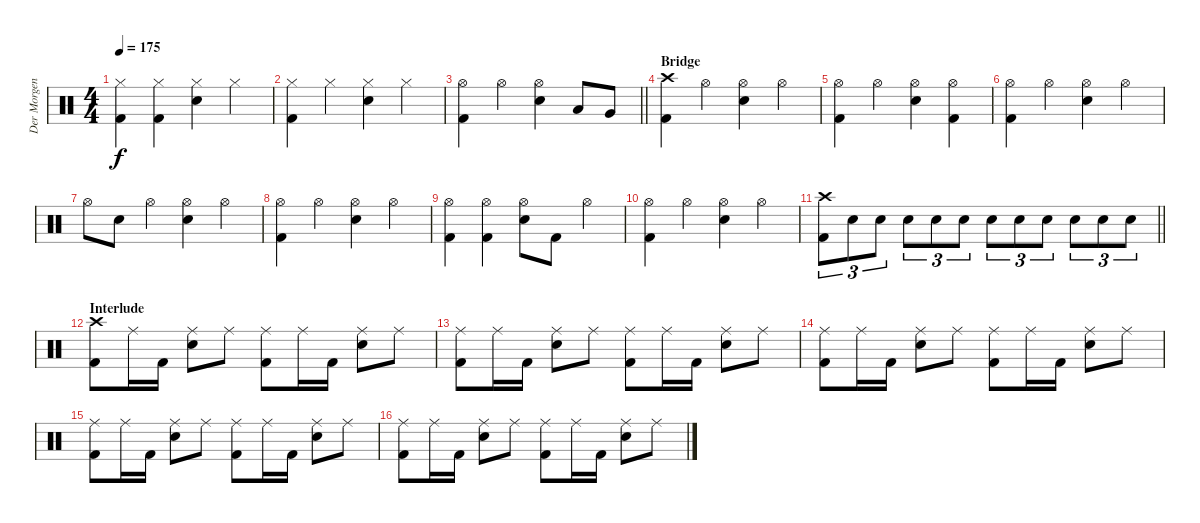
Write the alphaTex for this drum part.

\track ("Der Morgenstern" "Der Morgen") {instrument percussion}
\staff {score}
\articulation defaults
\ts (4 4)
\tempo 175
\clef neutral
\ks c
("Hi-Hat (closed)" "Kick (hit) 2").4{dy f} ("Hi-Hat (closed)" "Kick (hit) 2").4 ("Hi-Hat (closed)" "Electric Snare (hit)").4 "Hi-Hat (closed)".4 |
("Hi-Hat (closed)" "Kick (hit) 2").4 "Hi-Hat (closed)".4 ("Hi-Hat (closed)" "Electric Snare (hit)").4 "Hi-Hat (closed)".4 |
\barLineRight lightlight
("Hi-Hat (open)" "Kick (hit) 2").4 "Hi-Hat (open)".4 ("Hi-Hat (open)" "Electric Snare (hit)").4 "Low Tom (hit)".8 "Very Low Tom (hit)".8 |
\section ("" "Bridge")
("Crash high (hit)" "Kick (hit) 2").4 "Hi-Hat (open)".4 ("Hi-Hat (open)" "Electric Snare (hit)").4 "Hi-Hat (open)".4 |
("Hi-Hat (open)" "Kick (hit) 2").4 "Hi-Hat (open)".4 ("Hi-Hat (open)" "Electric Snare (hit)").4 ("Hi-Hat (open)" "Kick (hit) 2").4 |
("Hi-Hat (open)" "Kick (hit) 2").4 "Hi-Hat (open)".4 ("Hi-Hat (open)" "Electric Snare (hit)").4 "Hi-Hat (open)".4 |
"Hi-Hat (open)".8 "Electric Snare (hit)".8 "Hi-Hat (open)".4 ("Hi-Hat (open)" "Electric Snare (hit)").4 "Hi-Hat (open)".4 |
("Hi-Hat (open)" "Kick (hit) 2").4 "Hi-Hat (open)".4 ("Hi-Hat (open)" "Electric Snare (hit)").4 "Hi-Hat (open)".4 |
("Hi-Hat (open)" "Kick (hit) 2").4 ("Hi-Hat (open)" "Kick (hit) 2").4 ("Hi-Hat (open)" "Electric Snare (hit)").8 "Kick (hit) 2".8 "Hi-Hat (open)".4 |
("Hi-Hat (open)" "Kick (hit) 2").4 "Hi-Hat (open)".4 ("Hi-Hat (open)" "Electric Snare (hit)").4 "Hi-Hat (open)".4 |
\barLineRight lightlight
("Crash high (hit)" "Kick (hit) 2").8{tu (3 2)} "Electric Snare (hit)".8{tu (3 2)} "Electric Snare (hit)".8{tu (3 2)} "Electric Snare (hit)".8{tu (3 2)} "Electric Snare (hit)".8{tu (3 2)} "Electric Snare (hit)".8{tu (3 2)} "Electric Snare (hit)".8{tu (3 2)} "Electric Snare (hit)".8{tu (3 2)} "Electric Snare (hit)".8{tu (3 2)} "Electric Snare (hit)".8{tu (3 2)} "Electric Snare (hit)".8{tu (3 2)} "Electric Snare (hit)".8{tu (3 2)} |
\section ("" "Interlude")
("Crash high (hit)" "Kick (hit) 2").8 "Ride (middle)".16 "Kick (hit) 2".16 ("Ride (middle)" "Electric Snare (hit)").8 "Ride (middle)".8 ("Ride (middle)" "Kick (hit) 2").8 "Ride (middle)".16 "Kick (hit) 2".16 ("Ride (middle)" "Electric Snare (hit)").8 "Ride (middle)".8 |
("Ride (middle)" "Kick (hit) 2").8 "Ride (middle)".16 "Kick (hit) 2".16 ("Ride (middle)" "Electric Snare (hit)").8 "Ride (middle)".8 ("Ride (middle)" "Kick (hit) 2").8 "Ride (middle)".16 "Kick (hit) 2".16 ("Ride (middle)" "Electric Snare (hit)").8 "Ride (middle)".8 |
("Ride (middle)" "Kick (hit) 2").8 "Ride (middle)".16 "Kick (hit) 2".16 ("Ride (middle)" "Electric Snare (hit)").8 "Ride (middle)".8 ("Ride (middle)" "Kick (hit) 2").8 "Ride (middle)".16 "Kick (hit) 2".16 ("Ride (middle)" "Electric Snare (hit)").8 "Ride (middle)".8 |
("Ride (middle)" "Kick (hit) 2").8 "Ride (middle)".16 "Kick (hit) 2".16 ("Ride (middle)" "Electric Snare (hit)").8 "Ride (middle)".8 ("Ride (middle)" "Kick (hit) 2").8 "Ride (middle)".16 "Kick (hit) 2".16 ("Ride (middle)" "Electric Snare (hit)").8 "Ride (middle)".8 |
("Ride (middle)" "Kick (hit) 2").8 "Ride (middle)".16 "Kick (hit) 2".16 ("Ride (middle)" "Electric Snare (hit)").8 "Ride (middle)".8 ("Ride (middle)" "Kick (hit) 2").8 "Ride (middle)".16 "Kick (hit) 2".16 ("Ride (middle)" "Electric Snare (hit)").8 "Ride (middle)".8
